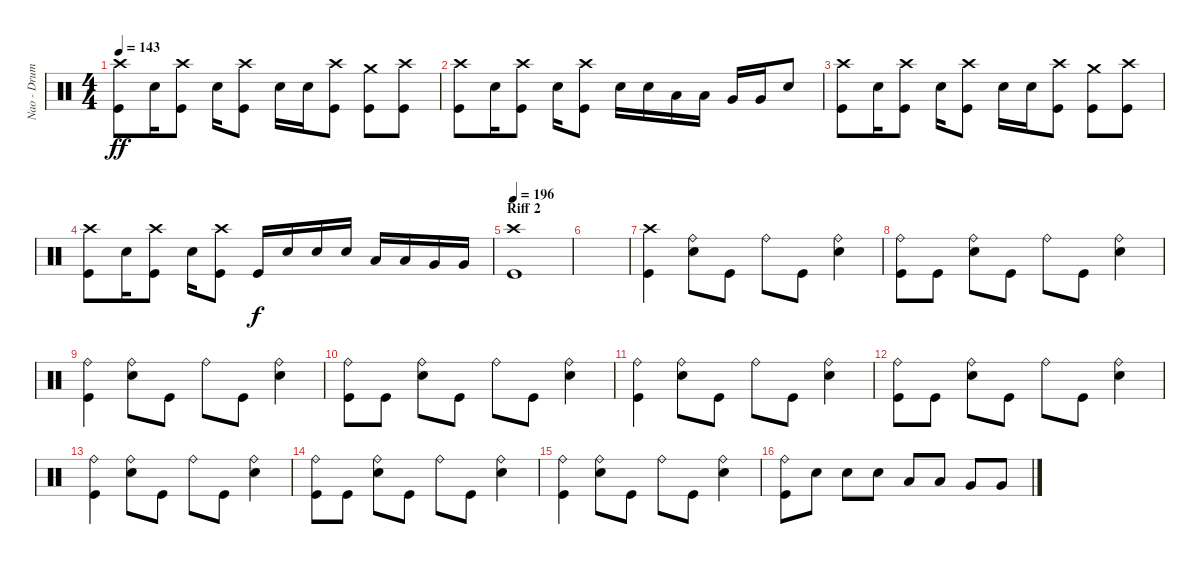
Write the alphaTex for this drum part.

\track ("Nao - Drums" "Nao - Drum") {instrument percussion}
\staff {score}
\articulation defaults
\ts (4 4)
\tempo 143
\clef neutral
\ks c
("Crash high (hit)" "Kick (hit)").8{dy ff} "Snare (hit) 2".16 ("Crash high (hit)" "Kick (hit)").8 "Snare (hit) 2".16 ("Crash high (hit)" "Kick (hit)").8 "Snare (hit) 2".16 "Snare (hit) 2".16 ("Kick (hit)" "Crash high (hit)").8 ("Crash medium (hit)" "Kick (hit)").8 ("Crash high (hit)" "Kick (hit)").8 |
("Crash high (hit)" "Kick (hit)").8 "Snare (hit) 2".16 ("Crash high (hit)" "Kick (hit)").8 "Snare (hit) 2".16 ("Crash high (hit)" "Kick (hit)").8 "Snare (hit) 2".16 "Snare (hit) 2".16 "Low Tom (hit)".16 "Low Tom (hit)".16 "Very Low Tom (hit)".16 "Very Low Tom (hit)".16 "Snare (hit) 2".8 |
("Crash high (hit)" "Kick (hit)").8 "Snare (hit) 2".16 ("Crash high (hit)" "Kick (hit)").8 "Snare (hit) 2".16 ("Crash high (hit)" "Kick (hit)").8 "Snare (hit) 2".16 "Snare (hit) 2".16 ("Kick (hit)" "Crash high (hit)").8 ("Crash medium (hit)" "Kick (hit)").8 ("Crash high (hit)" "Kick (hit)").8 |
("Crash high (hit)" "Kick (hit)").8 "Snare (hit) 2".16 ("Crash high (hit)" "Kick (hit)").8 "Snare (hit) 2".16 ("Crash high (hit)" "Kick (hit)").8 "Kick (hit)".16{dy f} "Snare (hit) 2".16 "Snare (hit) 2".16 "Snare (hit) 2".16 "Low Tom (hit)".16 "Low Tom (hit)".16 "Very Low Tom (hit)".16 "Very Low Tom (hit)".16 |
\section ("" "Riff 2")
\tempo 196
("Crash high (hit)" "Kick (hit)").1 |
|
("Crash high (hit)" "Kick (hit)").4 ("Snare (hit) 2" "Ride (bell)").8 "Kick (hit)".8 "Ride (bell)".8 "Kick (hit)".8 ("Snare (hit) 2" "Ride (bell)").4 |
("Kick (hit)" "Ride (bell)").8 "Kick (hit)".8 ("Snare (hit) 2" "Ride (bell)").8 "Kick (hit)".8 "Ride (bell)".8 "Kick (hit)".8 ("Snare (hit) 2" "Ride (bell)").4 |
("Kick (hit)" "Ride (bell)").4 ("Snare (hit) 2" "Ride (bell)").8 "Kick (hit)".8 "Ride (bell)".8 "Kick (hit)".8 ("Snare (hit) 2" "Ride (bell)").4 |
("Kick (hit)" "Ride (bell)").8 "Kick (hit)".8 ("Snare (hit) 2" "Ride (bell)").8 "Kick (hit)".8 "Ride (bell)".8 "Kick (hit)".8 ("Snare (hit) 2" "Ride (bell)").4 |
("Kick (hit)" "Ride (bell)").4 ("Snare (hit) 2" "Ride (bell)").8 "Kick (hit)".8 "Ride (bell)".8 "Kick (hit)".8 ("Snare (hit) 2" "Ride (bell)").4 |
("Kick (hit)" "Ride (bell)").8 "Kick (hit)".8 ("Snare (hit) 2" "Ride (bell)").8 "Kick (hit)".8 "Ride (bell)".8 "Kick (hit)".8 ("Snare (hit) 2" "Ride (bell)").4 |
("Kick (hit)" "Ride (bell)").4 ("Snare (hit) 2" "Ride (bell)").8 "Kick (hit)".8 "Ride (bell)".8 "Kick (hit)".8 ("Snare (hit) 2" "Ride (bell)").4 |
("Kick (hit)" "Ride (bell)").8 "Kick (hit)".8 ("Snare (hit) 2" "Ride (bell)").8 "Kick (hit)".8 "Ride (bell)".8 "Kick (hit)".8 ("Snare (hit) 2" "Ride (bell)").4 |
("Kick (hit)" "Ride (bell)").4 ("Snare (hit) 2" "Ride (bell)").8 "Kick (hit)".8 "Ride (bell)".8 "Kick (hit)".8 ("Snare (hit) 2" "Ride (bell)").4 |
("Kick (hit)" "Ride (bell)").8 "Snare (hit) 2".8 "Snare (hit) 2".8 "Snare (hit) 2".8 "Low Tom (hit)".8 "Low Tom (hit)".8 "Very Low Tom (hit)".8 "Very Low Tom (hit)".8
